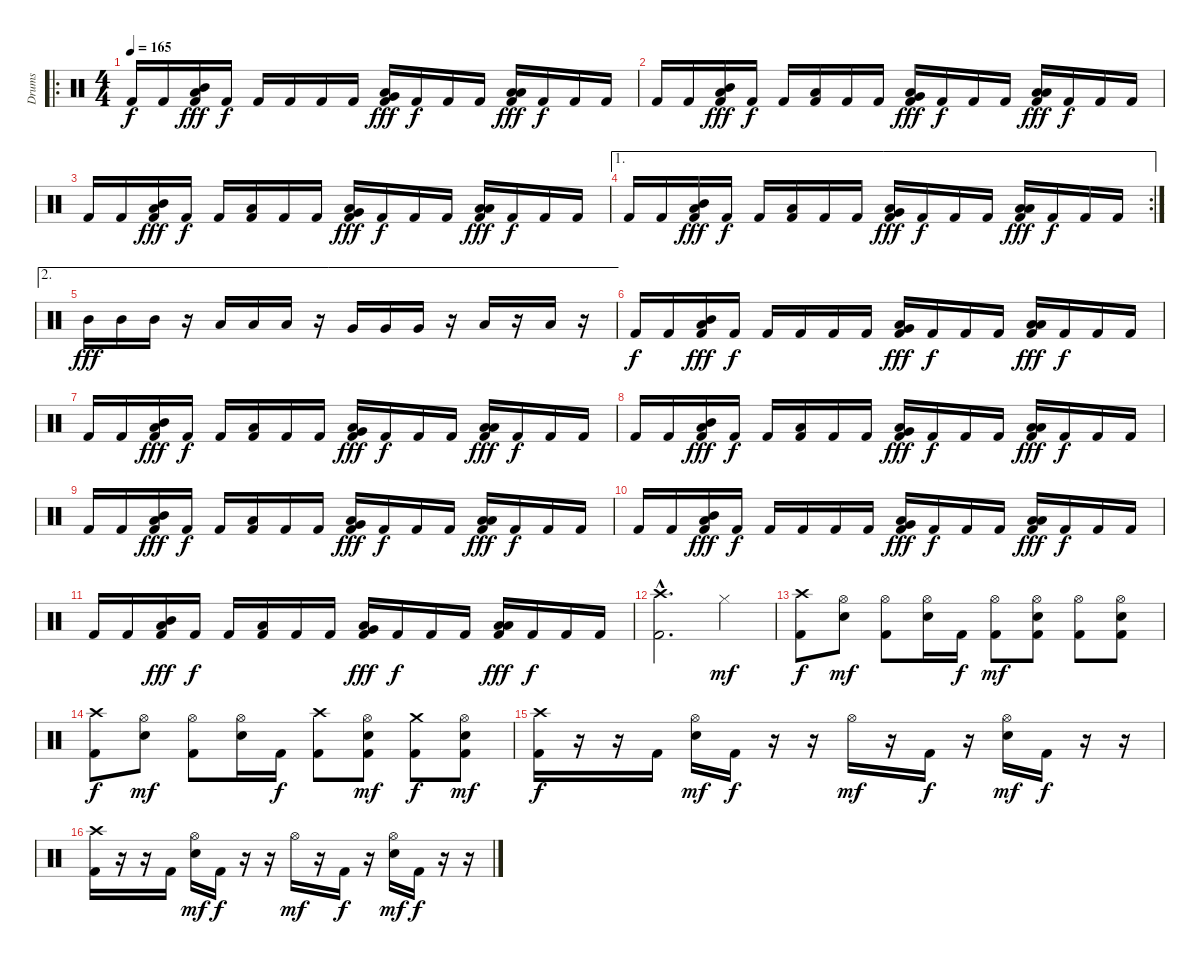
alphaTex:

\track ("Drums" "Drums") {instrument percussion}
\staff {score}
\articulation defaults
\ro
\ts (4 4)
\tempo 165
\clef neutral
\ks c "Kick (hit) 2".16{dy f} "Kick (hit) 2".16
("Mid Tom (hit)" "Low Tom (hit)" "Kick (hit) 2").16{dy fff} "Kick (hit) 2".16{dy f} "Kick (hit) 2".16 "Kick (hit) 2".16 "Kick (hit) 2".16 "Kick (hit) 2".16 ("Low Tom (hit)" "Very Low Tom (hit)" "Kick (hit) 2").16{dy fff} "Kick (hit) 2".16{dy f} "Kick (hit) 2".16 "Kick (hit) 2".16 ("Low Tom (hit)" "Low Floor Tom (hit)" "Kick (hit) 2").16{dy fff} "Kick (hit) 2".16{dy f} "Kick (hit) 2".16 "Kick (hit) 2".16 |
"Kick (hit) 2".16 "Kick (hit) 2".16 ("Mid Tom (hit)" "Low Tom (hit)" "Kick (hit) 2").16{dy fff} "Kick (hit) 2".16{dy f} "Kick (hit) 2".16 ("Low Tom (hit)" "Kick (hit) 2").16 "Kick (hit) 2".16 "Kick (hit) 2".16 ("Low Tom (hit)" "Very Low Tom (hit)" "Kick (hit) 2").16{dy fff} "Kick (hit) 2".16{dy f} "Kick (hit) 2".16 "Kick (hit) 2".16 ("Low Tom (hit)" "Low Floor Tom (hit)" "Kick (hit) 2").16{dy fff} "Kick (hit) 2".16{dy f} "Kick (hit) 2".16 "Kick (hit) 2".16 |
"Kick (hit) 2".16 "Kick (hit) 2".16 ("Mid Tom (hit)" "Low Tom (hit)" "Kick (hit) 2").16{dy fff} "Kick (hit) 2".16{dy f} "Kick (hit) 2".16 ("Low Tom (hit)" "Kick (hit) 2").16 "Kick (hit) 2".16 "Kick (hit) 2".16 ("Low Tom (hit)" "Very Low Tom (hit)" "Kick (hit) 2").16{dy fff} "Kick (hit) 2".16{dy f} "Kick (hit) 2".16 "Kick (hit) 2".16 ("Low Tom (hit)" "Low Floor Tom (hit)" "Kick (hit) 2").16{dy fff} "Kick (hit) 2".16{dy f} "Kick (hit) 2".16 "Kick (hit) 2".16 |
\ae 1
\rc 2 "Kick (hit) 2".16 "Kick (hit) 2".16
("Mid Tom (hit)" "Low Tom (hit)" "Kick (hit) 2").16{dy fff} "Kick (hit) 2".16{dy f} "Kick (hit) 2".16 ("Low Tom (hit)" "Kick (hit) 2").16 "Kick (hit) 2".16 "Kick (hit) 2".16 ("Low Tom (hit)" "Very Low Tom (hit)" "Kick (hit) 2").16{dy fff} "Kick (hit) 2".16{dy f} "Kick (hit) 2".16 "Kick (hit) 2".16 ("Low Tom (hit)" "Low Floor Tom (hit)" "Kick (hit) 2").16{dy fff} "Kick (hit) 2".16{dy f} "Kick (hit) 2".16 "Kick (hit) 2".16 |
\ae 2 "Mid Tom (hit)".16{dy fff} "Mid Tom (hit)".16 "Mid Tom (hit)".16
r.16 "Low Tom (hit)".16 "Low Tom (hit)".16 "Low Tom (hit)".16 r.16 "Very Low Tom (hit)".16 "Very Low Tom (hit)".16 "Very Low Tom (hit)".16 r.16 "Low Floor Tom (hit)".16 r.16 "Low Floor Tom (hit)".16 r.16 |
"Kick (hit) 2".16{dy f} "Kick (hit) 2".16 ("Mid Tom (hit)" "Low Tom (hit)" "Kick (hit) 2").16{dy fff} "Kick (hit) 2".16{dy f} "Kick (hit) 2".16 "Kick (hit) 2".16 "Kick (hit) 2".16 "Kick (hit) 2".16 ("Low Tom (hit)" "Very Low Tom (hit)" "Kick (hit) 2").16{dy fff} "Kick (hit) 2".16{dy f} "Kick (hit) 2".16 "Kick (hit) 2".16 ("Low Tom (hit)" "Low Floor Tom (hit)" "Kick (hit) 2").16{dy fff} "Kick (hit) 2".16{dy f} "Kick (hit) 2".16 "Kick (hit) 2".16 |
"Kick (hit) 2".16 "Kick (hit) 2".16 ("Mid Tom (hit)" "Low Tom (hit)" "Kick (hit) 2").16{dy fff} "Kick (hit) 2".16{dy f} "Kick (hit) 2".16 ("Low Tom (hit)" "Kick (hit) 2").16 "Kick (hit) 2".16 "Kick (hit) 2".16 ("Low Tom (hit)" "Very Low Tom (hit)" "Kick (hit) 2").16{dy fff} "Kick (hit) 2".16{dy f} "Kick (hit) 2".16 "Kick (hit) 2".16 ("Low Tom (hit)" "Low Floor Tom (hit)" "Kick (hit) 2").16{dy fff} "Kick (hit) 2".16{dy f} "Kick (hit) 2".16 "Kick (hit) 2".16 |
"Kick (hit) 2".16 "Kick (hit) 2".16 ("Mid Tom (hit)" "Low Tom (hit)" "Kick (hit) 2").16{dy fff} "Kick (hit) 2".16{dy f} "Kick (hit) 2".16 ("Low Tom (hit)" "Kick (hit) 2").16 "Kick (hit) 2".16 "Kick (hit) 2".16 ("Low Tom (hit)" "Very Low Tom (hit)" "Kick (hit) 2").16{dy fff} "Kick (hit) 2".16{dy f} "Kick (hit) 2".16 "Kick (hit) 2".16 ("Low Tom (hit)" "Low Floor Tom (hit)" "Kick (hit) 2").16{dy fff} "Kick (hit) 2".16{dy f} "Kick (hit) 2".16 "Kick (hit) 2".16 |
"Kick (hit) 2".16 "Kick (hit) 2".16 ("Mid Tom (hit)" "Low Tom (hit)" "Kick (hit) 2").16{dy fff} "Kick (hit) 2".16{dy f} "Kick (hit) 2".16 ("Low Tom (hit)" "Kick (hit) 2").16 "Kick (hit) 2".16 "Kick (hit) 2".16 ("Low Tom (hit)" "Very Low Tom (hit)" "Kick (hit) 2").16{dy fff} "Kick (hit) 2".16{dy f} "Kick (hit) 2".16 "Kick (hit) 2".16 ("Low Tom (hit)" "Low Floor Tom (hit)" "Kick (hit) 2").16{dy fff} "Kick (hit) 2".16{dy f} "Kick (hit) 2".16 "Kick (hit) 2".16 |
"Kick (hit) 2".16 "Kick (hit) 2".16 ("Mid Tom (hit)" "Low Tom (hit)" "Kick (hit) 2").16{dy fff} "Kick (hit) 2".16{dy f} "Kick (hit) 2".16 "Kick (hit) 2".16 "Kick (hit) 2".16 "Kick (hit) 2".16 ("Low Tom (hit)" "Very Low Tom (hit)" "Kick (hit) 2").16{dy fff} "Kick (hit) 2".16{dy f} "Kick (hit) 2".16 "Kick (hit) 2".16 ("Low Tom (hit)" "Low Floor Tom (hit)" "Kick (hit) 2").16{dy fff} "Kick (hit) 2".16{dy f} "Kick (hit) 2".16 "Kick (hit) 2".16 |
"Kick (hit) 2".16 "Kick (hit) 2".16 ("Mid Tom (hit)" "Low Tom (hit)" "Kick (hit) 2").16{dy fff} "Kick (hit) 2".16{dy f} "Kick (hit) 2".16 ("Low Tom (hit)" "Kick (hit) 2").16 "Kick (hit) 2".16 "Kick (hit) 2".16 ("Low Tom (hit)" "Very Low Tom (hit)" "Kick (hit) 2").16{dy fff} "Kick (hit) 2".16{dy f} "Kick (hit) 2".16 "Kick (hit) 2".16 ("Low Tom (hit)" "Low Floor Tom (hit)" "Kick (hit) 2").16{dy fff} "Kick (hit) 2".16{dy f} "Kick (hit) 2".16 "Kick (hit) 2".16 |
("Crash high (hit)"{hac} "Kick (hit) 2"{hac}).2{d} "Hi-Hat (closed)".4{dy mf} |
("Crash high (hit)" "Kick (hit) 2").8{dy f} ("Hi-Hat (open)" "Snare (hit) 2").8{dy mf} ("Hi-Hat (open)" "Kick (hit) 2").8 ("Hi-Hat (open)" "Snare (hit) 2").16 "Kick (hit) 2".16{dy f} ("Hi-Hat (open)" "Kick (hit) 2").8{dy mf} ("Hi-Hat (open)" "Snare (hit) 2" "Kick (hit) 2").8 ("Hi-Hat (open)" "Kick (hit) 2").8 ("Hi-Hat (open)" "Snare (hit) 2" "Kick (hit) 2").8 |
("Crash high (hit)" "Kick (hit) 2").8{dy f} ("Hi-Hat (open)" "Snare (hit) 2").8{dy mf} ("Hi-Hat (open)" "Kick (hit) 2").8 ("Hi-Hat (open)" "Snare (hit) 2").16 "Kick (hit) 2".16{dy f} ("Crash high (hit)" "Kick (hit) 2").8 ("Hi-Hat (open)" "Snare (hit) 2" "Kick (hit) 2").8{dy mf} ("Crash medium (hit)" "Kick (hit) 2").8{dy f} ("Hi-Hat (open)" "Snare (hit) 2" "Kick (hit) 2").8{dy mf} |
("Crash high (hit)" "Kick (hit) 2").16{dy f} r.16 r.16 "Kick (hit) 2".16 ("Hi-Hat (open)" "Snare (hit) 2").16{dy mf} "Kick (hit) 2".16{dy f} r.16 r.16 "Hi-Hat (open)".16{dy mf} r.16 "Kick (hit) 2".16{dy f} r.16 ("Hi-Hat (open)" "Snare (hit) 2").16{dy mf} "Kick (hit) 2".16{dy f} r.16 r.16 |
("Crash high (hit)" "Kick (hit) 2").16 r.16 r.16 "Kick (hit) 2".16 ("Hi-Hat (open)" "Snare (hit) 2").16{dy mf} "Kick (hit) 2".16{dy f} r.16 r.16 "Hi-Hat (open)".16{dy mf} r.16 "Kick (hit) 2".16{dy f} r.16 ("Hi-Hat (open)" "Snare (hit) 2").16{dy mf} "Kick (hit) 2".16{dy f} r.16 r.16
